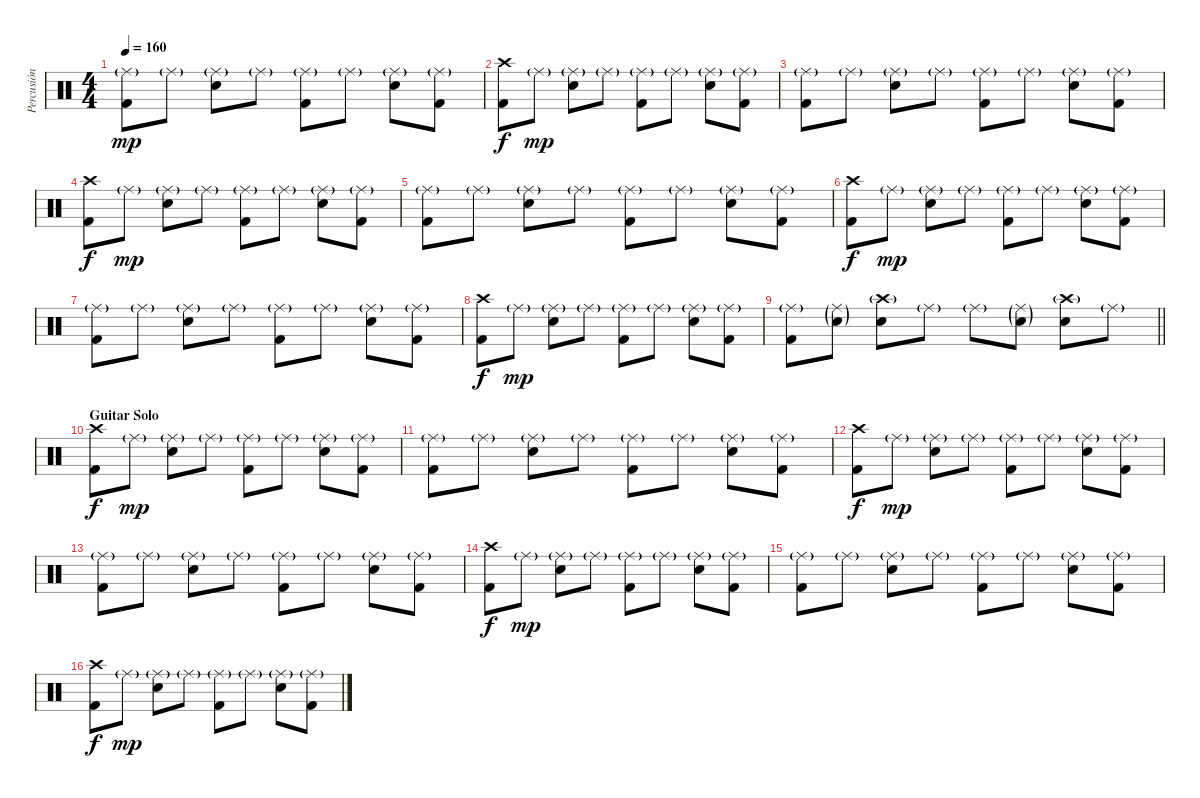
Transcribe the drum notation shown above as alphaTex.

\track ("Percusión" "Percusión") {instrument percussion}
\staff {score}
\articulation defaults
\ts (4 4)
\tempo 160
\clef neutral
\ks c
("Ride (middle)"{g} "Kick (hit) 2").8{dy mp} "Ride (middle)"{g}.8 ("Ride (middle)"{g} "Electric Snare (hit)").8 "Ride (middle)"{g}.8 ("Ride (middle)"{g} "Kick (hit) 2").8 "Ride (middle)"{g}.8 ("Ride (middle)"{g} "Electric Snare (hit)").8 ("Ride (middle)"{g} "Kick (hit) 2").8 |
("Crash high (hit)" "Kick (hit) 2").8{dy f} "Ride (middle)"{g}.8{dy mp} ("Ride (middle)"{g} "Electric Snare (hit)").8 "Ride (middle)"{g}.8 ("Ride (middle)"{g} "Kick (hit) 2").8 "Ride (middle)"{g}.8 ("Ride (middle)"{g} "Electric Snare (hit)").8 ("Ride (middle)"{g} "Kick (hit) 2").8 |
("Ride (middle)"{g} "Kick (hit) 2").8 "Ride (middle)"{g}.8 ("Ride (middle)"{g} "Electric Snare (hit)").8 "Ride (middle)"{g}.8 ("Ride (middle)"{g} "Kick (hit) 2").8 "Ride (middle)"{g}.8 ("Ride (middle)"{g} "Electric Snare (hit)").8 ("Ride (middle)"{g} "Kick (hit) 2").8 |
("Crash high (hit)" "Kick (hit) 2").8{dy f} "Ride (middle)"{g}.8{dy mp} ("Ride (middle)"{g} "Electric Snare (hit)").8 "Ride (middle)"{g}.8 ("Ride (middle)"{g} "Kick (hit) 2").8 "Ride (middle)"{g}.8 ("Ride (middle)"{g} "Electric Snare (hit)").8 ("Ride (middle)"{g} "Kick (hit) 2").8 |
("Ride (middle)"{g} "Kick (hit) 2").8 "Ride (middle)"{g}.8 ("Ride (middle)"{g} "Electric Snare (hit)").8 "Ride (middle)"{g}.8 ("Ride (middle)"{g} "Kick (hit) 2").8 "Ride (middle)"{g}.8 ("Ride (middle)"{g} "Electric Snare (hit)").8 ("Ride (middle)"{g} "Kick (hit) 2").8 |
("Crash high (hit)" "Kick (hit) 2").8{dy f} "Ride (middle)"{g}.8{dy mp} ("Ride (middle)"{g} "Electric Snare (hit)").8 "Ride (middle)"{g}.8 ("Ride (middle)"{g} "Kick (hit) 2").8 "Ride (middle)"{g}.8 ("Ride (middle)"{g} "Electric Snare (hit)").8 ("Ride (middle)"{g} "Kick (hit) 2").8 |
("Ride (middle)"{g} "Kick (hit) 2").8 "Ride (middle)"{g}.8 ("Ride (middle)"{g} "Electric Snare (hit)").8 "Ride (middle)"{g}.8 ("Ride (middle)"{g} "Kick (hit) 2").8 "Ride (middle)"{g}.8 ("Ride (middle)"{g} "Electric Snare (hit)").8 ("Ride (middle)"{g} "Kick (hit) 2").8 |
("Crash high (hit)" "Kick (hit) 2").8{dy f} "Ride (middle)"{g}.8{dy mp} ("Ride (middle)"{g} "Electric Snare (hit)").8 "Ride (middle)"{g}.8 ("Ride (middle)"{g} "Kick (hit) 2").8 "Ride (middle)"{g}.8 ("Ride (middle)"{g} "Electric Snare (hit)").8 ("Ride (middle)"{g} "Kick (hit) 2").8 |
\barLineRight lightlight
("Ride (middle)"{g} "Kick (hit) 2").8 ("Ride (middle)"{g} "Electric Snare (hit)"{g}).8 ("Crash high (hit)"{g} "Electric Snare (hit)").8 "Ride (middle)"{g}.8 "Ride (middle)"{g}.8 ("Ride (middle)"{g} "Electric Snare (hit)"{g}).8 ("Crash high (hit)"{g} "Electric Snare (hit)").8 "Ride (middle)"{g}.8 |
\section ("" "Guitar Solo")
("Crash high (hit)" "Kick (hit) 2").8{dy f} "Ride (middle)"{g}.8{dy mp} ("Ride (middle)"{g} "Electric Snare (hit)").8 "Ride (middle)"{g}.8 ("Ride (middle)"{g} "Kick (hit) 2").8 "Ride (middle)"{g}.8 ("Ride (middle)"{g} "Electric Snare (hit)").8 ("Ride (middle)"{g} "Kick (hit) 2").8 |
("Ride (middle)"{g} "Kick (hit) 2").8 "Ride (middle)"{g}.8 ("Ride (middle)"{g} "Electric Snare (hit)").8 "Ride (middle)"{g}.8 ("Ride (middle)"{g} "Kick (hit) 2").8 "Ride (middle)"{g}.8 ("Ride (middle)"{g} "Electric Snare (hit)").8 ("Ride (middle)"{g} "Kick (hit) 2").8 |
("Crash high (hit)" "Kick (hit) 2").8{dy f} "Ride (middle)"{g}.8{dy mp} ("Ride (middle)"{g} "Electric Snare (hit)").8 "Ride (middle)"{g}.8 ("Ride (middle)"{g} "Kick (hit) 2").8 "Ride (middle)"{g}.8 ("Ride (middle)"{g} "Electric Snare (hit)").8 ("Ride (middle)"{g} "Kick (hit) 2").8 |
("Ride (middle)"{g} "Kick (hit) 2").8 "Ride (middle)"{g}.8 ("Ride (middle)"{g} "Electric Snare (hit)").8 "Ride (middle)"{g}.8 ("Ride (middle)"{g} "Kick (hit) 2").8 "Ride (middle)"{g}.8 ("Ride (middle)"{g} "Electric Snare (hit)").8 ("Ride (middle)"{g} "Kick (hit) 2").8 |
("Crash high (hit)" "Kick (hit) 2").8{dy f} "Ride (middle)"{g}.8{dy mp} ("Ride (middle)"{g} "Electric Snare (hit)").8 "Ride (middle)"{g}.8 ("Ride (middle)"{g} "Kick (hit) 2").8 "Ride (middle)"{g}.8 ("Ride (middle)"{g} "Electric Snare (hit)").8 ("Ride (middle)"{g} "Kick (hit) 2").8 |
("Ride (middle)"{g} "Kick (hit) 2").8 "Ride (middle)"{g}.8 ("Ride (middle)"{g} "Electric Snare (hit)").8 "Ride (middle)"{g}.8 ("Ride (middle)"{g} "Kick (hit) 2").8 "Ride (middle)"{g}.8 ("Ride (middle)"{g} "Electric Snare (hit)").8 ("Ride (middle)"{g} "Kick (hit) 2").8 |
("Crash high (hit)" "Kick (hit) 2").8{dy f} "Ride (middle)"{g}.8{dy mp} ("Ride (middle)"{g} "Electric Snare (hit)").8 "Ride (middle)"{g}.8 ("Ride (middle)"{g} "Kick (hit) 2").8 "Ride (middle)"{g}.8 ("Ride (middle)"{g} "Electric Snare (hit)").8 ("Ride (middle)"{g} "Kick (hit) 2").8
